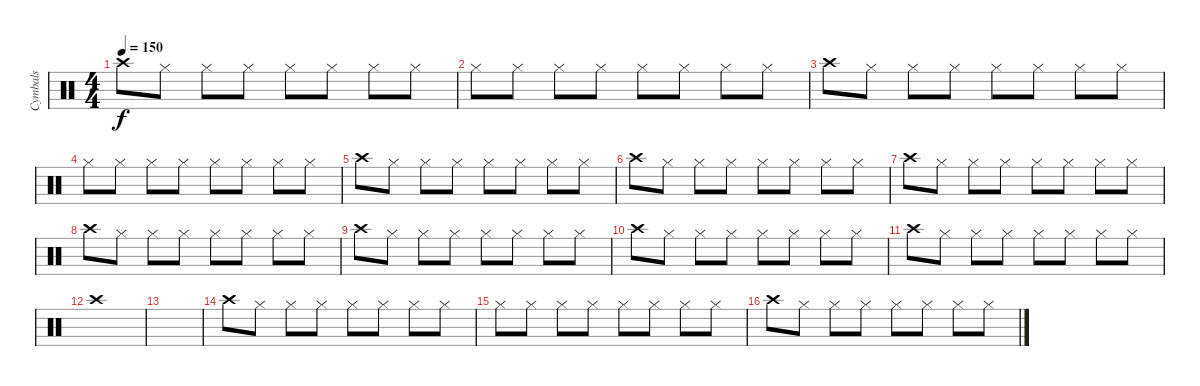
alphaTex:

\track ("Cymbals" "Cymbals") {instrument percussion}
\staff {score}
\articulation defaults
\ts (4 4)
\tempo 150
\clef neutral
\ks c "Crash high (hit)".8{dy f} "Hi-Hat (closed)".8 "Hi-Hat (closed)".8 "Hi-Hat (closed)".8 "Hi-Hat (closed)".8 "Hi-Hat (closed)".8 "Hi-Hat (closed)".8 "Hi-Hat (closed)".8
|
"Hi-Hat (closed)".8 "Hi-Hat (closed)".8 "Hi-Hat (closed)".8 "Hi-Hat (closed)".8 "Hi-Hat (closed)".8 "Hi-Hat (closed)".8 "Hi-Hat (closed)".8 "Hi-Hat (closed)".8 |
"Crash high (hit)".8 "Hi-Hat (closed)".8 "Hi-Hat (closed)".8 "Hi-Hat (closed)".8 "Hi-Hat (closed)".8 "Hi-Hat (closed)".8 "Hi-Hat (closed)".8 "Hi-Hat (closed)".8 |
"Hi-Hat (closed)".8 "Hi-Hat (closed)".8 "Hi-Hat (closed)".8 "Hi-Hat (closed)".8 "Hi-Hat (closed)".8 "Hi-Hat (closed)".8 "Hi-Hat (closed)".8 "Hi-Hat (closed)".8 |
"Crash high (hit)".8 "Hi-Hat (closed)".8 "Hi-Hat (closed)".8 "Hi-Hat (closed)".8 "Hi-Hat (closed)".8 "Hi-Hat (closed)".8 "Hi-Hat (closed)".8 "Hi-Hat (closed)".8 |
"Crash high (hit)".8 "Hi-Hat (closed)".8 "Hi-Hat (closed)".8 "Hi-Hat (closed)".8 "Hi-Hat (closed)".8 "Hi-Hat (closed)".8 "Hi-Hat (closed)".8 "Hi-Hat (closed)".8 |
"Crash high (hit)".8 "Hi-Hat (closed)".8 "Hi-Hat (closed)".8 "Hi-Hat (closed)".8 "Hi-Hat (closed)".8 "Hi-Hat (closed)".8 "Hi-Hat (closed)".8 "Hi-Hat (closed)".8 |
"Crash high (hit)".8 "Hi-Hat (closed)".8 "Hi-Hat (closed)".8 "Hi-Hat (closed)".8 "Hi-Hat (closed)".8 "Hi-Hat (closed)".8 "Hi-Hat (closed)".8 "Hi-Hat (closed)".8 |
"Crash high (hit)".8 "Hi-Hat (closed)".8 "Hi-Hat (closed)".8 "Hi-Hat (closed)".8 "Hi-Hat (closed)".8 "Hi-Hat (closed)".8 "Hi-Hat (closed)".8 "Hi-Hat (closed)".8 |
"Crash high (hit)".8 "Hi-Hat (closed)".8 "Hi-Hat (closed)".8 "Hi-Hat (closed)".8 "Hi-Hat (closed)".8 "Hi-Hat (closed)".8 "Hi-Hat (closed)".8 "Hi-Hat (closed)".8 |
"Crash high (hit)".8 "Hi-Hat (closed)".8 "Hi-Hat (closed)".8 "Hi-Hat (closed)".8 "Hi-Hat (closed)".8 "Hi-Hat (closed)".8 "Hi-Hat (closed)".8 "Hi-Hat (closed)".8 |
"Crash high (hit)".1 |
|
"Crash high (hit)".8 "Hi-Hat (closed)".8 "Hi-Hat (closed)".8 "Hi-Hat (closed)".8 "Hi-Hat (closed)".8 "Hi-Hat (closed)".8 "Hi-Hat (closed)".8 "Hi-Hat (closed)".8 |
"Hi-Hat (closed)".8 "Hi-Hat (closed)".8 "Hi-Hat (closed)".8 "Hi-Hat (closed)".8 "Hi-Hat (closed)".8 "Hi-Hat (closed)".8 "Hi-Hat (closed)".8 "Hi-Hat (closed)".8 |
"Crash high (hit)".8 "Hi-Hat (closed)".8 "Hi-Hat (closed)".8 "Hi-Hat (closed)".8 "Hi-Hat (closed)".8 "Hi-Hat (closed)".8 "Hi-Hat (closed)".8 "Hi-Hat (closed)".8
